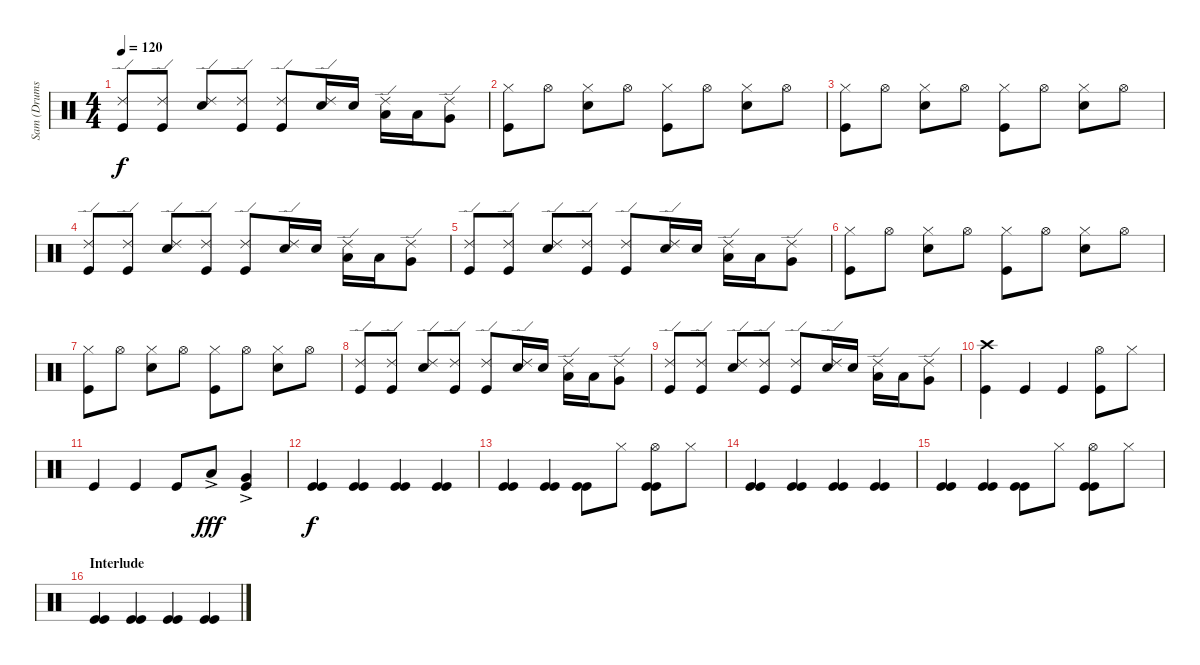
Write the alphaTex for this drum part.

\track ("Sam (Drums)" "Sam (Drums") {instrument percussion}
\staff {score}
\articulation defaults
\ts (4 4)
\tempo 120
\clef neutral
\ks c
("Ride (edge) 2" "Kick (hit)").8{dy f} ("Ride (edge) 2" "Kick (hit)").8 ("Ride (edge) 2" "Snare (hit) 2").8 ("Ride (edge) 2" "Kick (hit)").8 ("Ride (edge) 2" "Kick (hit)").8 ("Ride (edge) 2" "Snare (hit) 2").16 "Snare (hit) 2".16 ("Ride (edge) 2" "Low Tom (hit)").16 "Low Tom (hit)".16 ("Ride (edge) 2" "Very Low Tom (hit)").8 |
("Hi-Hat (closed)" "Kick (hit)").8 "Hi-Hat (open)".8 ("Hi-Hat (closed)" "Snare (hit) 2").8 "Hi-Hat (open)".8 ("Hi-Hat (closed)" "Kick (hit)").8 "Hi-Hat (open)".8 ("Hi-Hat (closed)" "Snare (hit) 2").8 "Hi-Hat (open)".8 |
("Hi-Hat (closed)" "Kick (hit)").8 "Hi-Hat (open)".8 ("Hi-Hat (closed)" "Snare (hit) 2").8 "Hi-Hat (open)".8 ("Hi-Hat (closed)" "Kick (hit)").8 "Hi-Hat (open)".8 ("Hi-Hat (closed)" "Snare (hit) 2").8 "Hi-Hat (open)".8 |
("Ride (edge) 2" "Kick (hit)").8 ("Ride (edge) 2" "Kick (hit)").8 ("Ride (edge) 2" "Snare (hit) 2").8 ("Ride (edge) 2" "Kick (hit)").8 ("Ride (edge) 2" "Kick (hit)").8 ("Ride (edge) 2" "Snare (hit) 2").16 "Snare (hit) 2".16 ("Ride (edge) 2" "Low Tom (hit)").16 "Low Tom (hit)".16 ("Ride (edge) 2" "Very Low Tom (hit)").8 |
("Ride (edge) 2" "Kick (hit)").8 ("Ride (edge) 2" "Kick (hit)").8 ("Ride (edge) 2" "Snare (hit) 2").8 ("Ride (edge) 2" "Kick (hit)").8 ("Ride (edge) 2" "Kick (hit)").8 ("Ride (edge) 2" "Snare (hit) 2").16 "Snare (hit) 2".16 ("Ride (edge) 2" "Low Tom (hit)").16 "Low Tom (hit)".16 ("Ride (edge) 2" "Very Low Tom (hit)").8 |
("Hi-Hat (closed)" "Kick (hit)").8 "Hi-Hat (open)".8 ("Hi-Hat (closed)" "Snare (hit) 2").8 "Hi-Hat (open)".8 ("Hi-Hat (closed)" "Kick (hit)").8 "Hi-Hat (open)".8 ("Hi-Hat (closed)" "Snare (hit) 2").8 "Hi-Hat (open)".8 |
("Hi-Hat (closed)" "Kick (hit)").8 "Hi-Hat (open)".8 ("Hi-Hat (closed)" "Snare (hit) 2").8 "Hi-Hat (open)".8 ("Hi-Hat (closed)" "Kick (hit)").8 "Hi-Hat (open)".8 ("Hi-Hat (closed)" "Snare (hit) 2").8 "Hi-Hat (open)".8 |
("Ride (edge) 2" "Kick (hit)").8 ("Ride (edge) 2" "Kick (hit)").8 ("Ride (edge) 2" "Snare (hit) 2").8 ("Ride (edge) 2" "Kick (hit)").8 ("Ride (edge) 2" "Kick (hit)").8 ("Ride (edge) 2" "Snare (hit) 2").16 "Snare (hit) 2".16 ("Ride (edge) 2" "Low Tom (hit)").16 "Low Tom (hit)".16 ("Ride (edge) 2" "Very Low Tom (hit)").8 |
("Ride (edge) 2" "Kick (hit)").8 ("Ride (edge) 2" "Kick (hit)").8 ("Ride (edge) 2" "Snare (hit) 2").8 ("Ride (edge) 2" "Kick (hit)").8 ("Ride (edge) 2" "Kick (hit)").8 ("Ride (edge) 2" "Snare (hit) 2").16 "Snare (hit) 2".16 ("Ride (edge) 2" "Low Tom (hit)").16 "Low Tom (hit)".16 ("Ride (edge) 2" "Very Low Tom (hit)").8 |
("Crash high (hit)" "Kick (hit)").4 "Kick (hit)".4 "Kick (hit)".4 ("Hi-Hat (open)" "Kick (hit)").8 "Hi-Hat (closed)".8 |
"Kick (hit)".4 "Kick (hit)".4 "Kick (hit)".8 "Low Tom (hit)"{ac}.8{dy fff} ("Very Low Tom (hit)" "Kick (hit)"{ac}).4 |
("Kick (hit)" "Kick (hit)").4{dy f} ("Kick (hit)" "Kick (hit)").4 ("Kick (hit)" "Kick (hit)").4 ("Kick (hit)" "Kick (hit)").4 |
("Kick (hit)" "Kick (hit)").4 ("Kick (hit)" "Kick (hit)").4 ("Kick (hit)" "Kick (hit)").8 "Hi-Hat (closed)".8 ("Hi-Hat (open)" "Kick (hit)" "Kick (hit)").8 "Hi-Hat (closed)".8 |
("Kick (hit)" "Kick (hit)").4 ("Kick (hit)" "Kick (hit)").4 ("Kick (hit)" "Kick (hit)").4 ("Kick (hit)" "Kick (hit)").4 |
("Kick (hit)" "Kick (hit)").4 ("Kick (hit)" "Kick (hit)").4 ("Kick (hit)" "Kick (hit)").8 "Hi-Hat (closed)".8 ("Hi-Hat (open)" "Kick (hit)" "Kick (hit)").8 "Hi-Hat (closed)".8 |
\section ("" "Interlude")
("Kick (hit)" "Kick (hit)").4 ("Kick (hit)" "Kick (hit)").4 ("Kick (hit)" "Kick (hit)").4 ("Kick (hit)" "Kick (hit)").4
